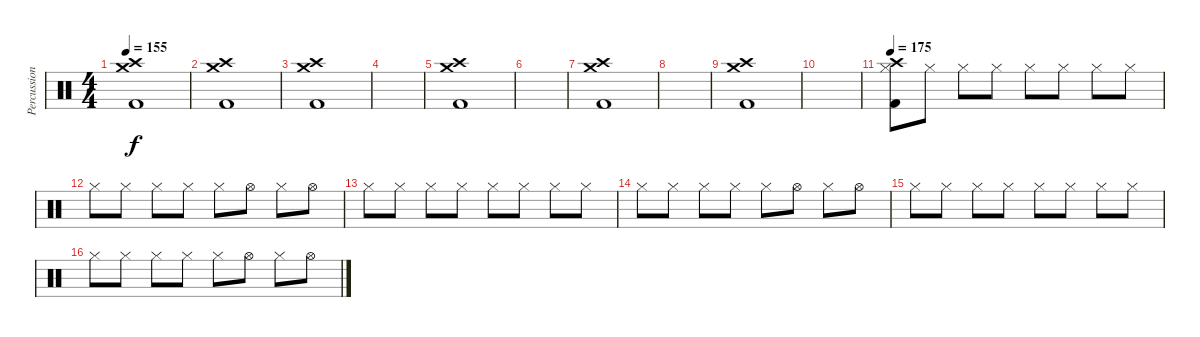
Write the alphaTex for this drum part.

\track ("Percussion" "Percussion") {instrument percussion}
\staff {score}
\articulation defaults
\ts (4 4)
\tempo 155
\clef neutral
\ks c
("Crash medium (hit)" "Crash high (hit)" "Kick (hit) 2").1{dy f} |
("Crash medium (hit)" "Crash high (hit)" "Kick (hit) 2").1 |
("Crash medium (hit)" "Crash high (hit)" "Kick (hit) 2").1 |
|
("Crash medium (hit)" "Crash high (hit)" "Kick (hit) 2").1 |
|
("Crash medium (hit)" "Crash high (hit)" "Kick (hit) 2").1 |
|
("Crash medium (hit)" "Crash high (hit)" "Kick (hit) 2").1 |
|
\tempo 175
("Crash high (hit)" "Hi-Hat (closed)" "Kick (hit) 2").8 "Hi-Hat (closed)".8 "Hi-Hat (closed)".8 "Hi-Hat (closed)".8 "Hi-Hat (closed)".8 "Hi-Hat (closed)".8 "Hi-Hat (closed)".8 "Hi-Hat (closed)".8 |
"Hi-Hat (closed)".8 "Hi-Hat (closed)".8 "Hi-Hat (closed)".8 "Hi-Hat (closed)".8 "Hi-Hat (closed)".8 "Hi-Hat (open)".8 "Hi-Hat (closed)".8 "Hi-Hat (open)".8 |
"Hi-Hat (closed)".8 "Hi-Hat (closed)".8 "Hi-Hat (closed)".8 "Hi-Hat (closed)".8 "Hi-Hat (closed)".8 "Hi-Hat (closed)".8 "Hi-Hat (closed)".8 "Hi-Hat (closed)".8 |
"Hi-Hat (closed)".8 "Hi-Hat (closed)".8 "Hi-Hat (closed)".8 "Hi-Hat (closed)".8 "Hi-Hat (closed)".8 "Hi-Hat (open)".8 "Hi-Hat (closed)".8 "Hi-Hat (open)".8 |
"Hi-Hat (closed)".8 "Hi-Hat (closed)".8 "Hi-Hat (closed)".8 "Hi-Hat (closed)".8 "Hi-Hat (closed)".8 "Hi-Hat (closed)".8 "Hi-Hat (closed)".8 "Hi-Hat (closed)".8 |
"Hi-Hat (closed)".8 "Hi-Hat (closed)".8 "Hi-Hat (closed)".8 "Hi-Hat (closed)".8 "Hi-Hat (closed)".8 "Hi-Hat (open)".8 "Hi-Hat (closed)".8 "Hi-Hat (open)".8
